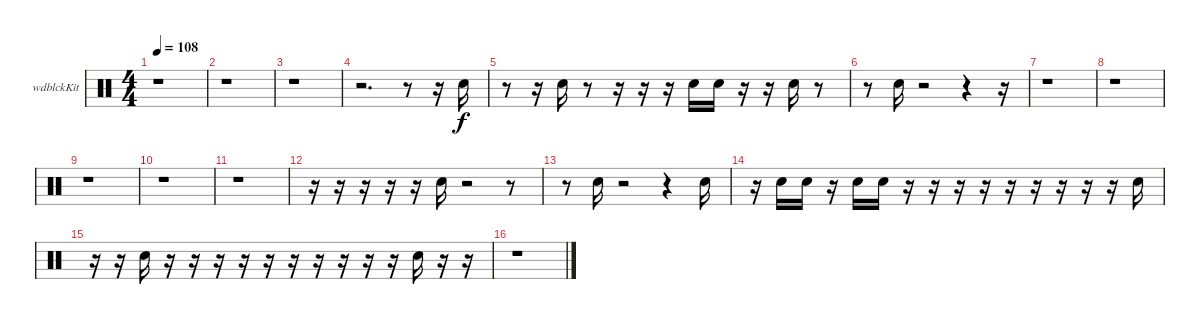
\bracketExtendMode groupsimilarinstruments
\firstSystemTrackNameOrientation horizontal
\otherSystemsTrackNameOrientation horizontal
\track ("Woodblock" "wdblckKit") {instrument percussion}
\staff {score}
\articulation defaults
\ts (4 4)
\tempo 108
\clef neutral
\ks c
r.1{dy f} |
r.1 |
r.1 |
r.2{d} r.8 r.16 "Snare (hit) 2".16 |
r.8 r.16 "Snare (hit) 2".16 r.8 r.16 r.16 r.16 "Snare (hit) 2".16 "Snare (hit) 2".16 r.16 r.16 "Snare (hit) 2".16 r.8 |
r.8 "Snare (hit) 2".16 r.2 r.4 r.16 |
r.1 |
r.1 |
r.1 |
r.1 |
r.1 |
r.16 r.16 r.16 r.16 r.16 "Snare (hit) 2".16 r.2 r.8 |
r.8 "Snare (hit) 2".16 r.2 r.4 "Snare (hit) 2".16 |
r.16 "Snare (hit) 2".16 "Snare (hit) 2".16 r.16 "Snare (hit) 2".16 "Snare (hit) 2".16 r.16 r.16 r.16 r.16 r.16 r.16 r.16 r.16 r.16 "Snare (hit) 2".16 |
r.16 r.16 "Snare (hit) 2".16 r.16 r.16 r.16 r.16 r.16 r.16 r.16 r.16 r.16 r.16 "Snare (hit) 2".16 r.16 r.16 |
r.1
